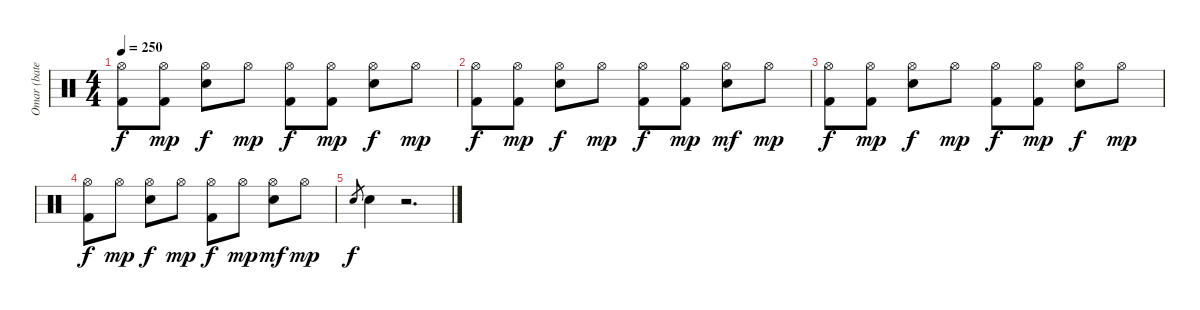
\track ("Omar (batería)" "Omar (bate") {instrument percussion}
\staff {score}
\articulation defaults
\ts (4 4)
\tempo 250
\clef neutral
\ks c
("Hi-Hat (open)" "Kick (hit) 2").8{dy f} ("Hi-Hat (open)" "Kick (hit) 2").8{dy mp} ("Hi-Hat (open)" "Snare (hit) 2").8{dy f} "Hi-Hat (open)".8{dy mp} ("Hi-Hat (open)" "Kick (hit) 2").8{dy f} ("Hi-Hat (open)" "Kick (hit) 2").8{dy mp} ("Hi-Hat (open)" "Snare (hit) 2").8{dy f} "Hi-Hat (open)".8{dy mp} |
("Hi-Hat (open)" "Kick (hit) 2").8{dy f} ("Hi-Hat (open)" "Kick (hit) 2").8{dy mp} ("Hi-Hat (open)" "Snare (hit) 2").8{dy f} "Hi-Hat (open)".8{dy mp} ("Hi-Hat (open)" "Kick (hit) 2").8{dy f} ("Hi-Hat (open)" "Kick (hit) 2").8{dy mp} ("Hi-Hat (open)" "Snare (hit) 2").8{dy mf} "Hi-Hat (open)".8{dy mp} |
("Hi-Hat (open)" "Kick (hit) 2").8{dy f} ("Hi-Hat (open)" "Kick (hit) 2").8{dy mp} ("Hi-Hat (open)" "Snare (hit) 2").8{dy f} "Hi-Hat (open)".8{dy mp} ("Hi-Hat (open)" "Kick (hit) 2").8{dy f} ("Hi-Hat (open)" "Kick (hit) 2").8{dy mp} ("Hi-Hat (open)" "Snare (hit) 2").8{dy f} "Hi-Hat (open)".8{dy mp} |
("Hi-Hat (open)" "Kick (hit) 2").8{dy f} "Hi-Hat (open)".8{dy mp} ("Hi-Hat (open)" "Snare (hit) 2").8{dy f} "Hi-Hat (open)".8{dy mp} ("Hi-Hat (open)" "Kick (hit) 2").8{dy f} "Hi-Hat (open)".8{dy mp} ("Hi-Hat (open)" "Snare (hit) 2").8{dy mf} "Hi-Hat (open)".8{dy mp} |
"Snare (hit) 2".8{gr dy f} "Snare (hit) 2".4 r.2{d}
